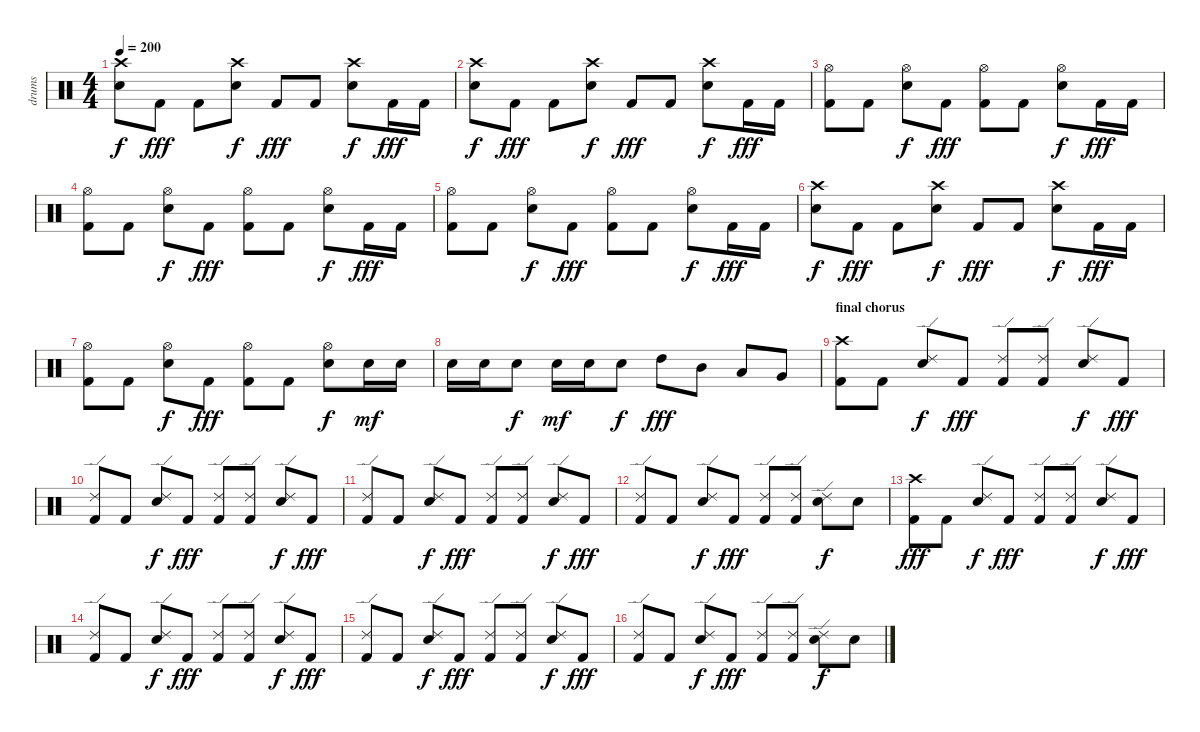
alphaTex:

\track ("drums" "drums") {instrument percussion}
\staff {score}
\articulation defaults
\ts (4 4)
\tempo 200
\clef neutral
\ks c
("Crash high (hit)" "Snare (hit) 2").8{dy f} "Kick (hit) 2".8{dy fff} "Kick (hit) 2".8 ("Crash high (hit)" "Snare (hit) 2").8{dy f} "Kick (hit) 2".8{dy fff} "Kick (hit) 2".8 ("Crash high (hit)" "Snare (hit) 2").8{dy f} "Kick (hit) 2".16{dy fff} "Kick (hit) 2".16 |
("Crash high (hit)" "Snare (hit) 2").8{dy f} "Kick (hit) 2".8{dy fff} "Kick (hit) 2".8 ("Crash high (hit)" "Snare (hit) 2").8{dy f} "Kick (hit) 2".8{dy fff} "Kick (hit) 2".8 ("Crash high (hit)" "Snare (hit) 2").8{dy f} "Kick (hit) 2".16{dy fff} "Kick (hit) 2".16 |
("Hi-Hat (open)" "Kick (hit) 2").8 "Kick (hit) 2".8 ("Hi-Hat (open)" "Snare (hit) 2").8{dy f} "Kick (hit) 2".8{dy fff} ("Hi-Hat (open)" "Kick (hit) 2").8 "Kick (hit) 2".8 ("Hi-Hat (open)" "Snare (hit) 2").8{dy f} "Kick (hit) 2".16{dy fff} "Kick (hit) 2".16 |
("Hi-Hat (open)" "Kick (hit) 2").8 "Kick (hit) 2".8 ("Hi-Hat (open)" "Snare (hit) 2").8{dy f} "Kick (hit) 2".8{dy fff} ("Hi-Hat (open)" "Kick (hit) 2").8 "Kick (hit) 2".8 ("Hi-Hat (open)" "Snare (hit) 2").8{dy f} "Kick (hit) 2".16{dy fff} "Kick (hit) 2".16 |
("Hi-Hat (open)" "Kick (hit) 2").8 "Kick (hit) 2".8 ("Hi-Hat (open)" "Snare (hit) 2").8{dy f} "Kick (hit) 2".8{dy fff} ("Hi-Hat (open)" "Kick (hit) 2").8 "Kick (hit) 2".8 ("Hi-Hat (open)" "Snare (hit) 2").8{dy f} "Kick (hit) 2".16{dy fff} "Kick (hit) 2".16 |
("Crash high (hit)" "Snare (hit) 2").8{dy f} "Kick (hit) 2".8{dy fff} "Kick (hit) 2".8 ("Crash high (hit)" "Snare (hit) 2").8{dy f} "Kick (hit) 2".8{dy fff} "Kick (hit) 2".8 ("Crash high (hit)" "Snare (hit) 2").8{dy f} "Kick (hit) 2".16{dy fff} "Kick (hit) 2".16 |
("Hi-Hat (open)" "Kick (hit) 2").8 "Kick (hit) 2".8 ("Hi-Hat (open)" "Snare (hit) 2").8{dy f} "Kick (hit) 2".8{dy fff} ("Hi-Hat (open)" "Kick (hit) 2").8 "Kick (hit) 2".8 ("Hi-Hat (open)" "Snare (hit) 2").8{dy f} "Snare (hit) 2".16{dy mf} "Snare (hit) 2".16 |
"Snare (hit) 2".16 "Snare (hit) 2".16 "Snare (hit) 2".8{dy f} "Snare (hit) 2".16{dy mf} "Snare (hit) 2".16 "Snare (hit) 2".8{dy f} "High Tom (hit)".8{dy fff} "Mid Tom (hit)".8 "Low Tom (hit)".8 "Very Low Tom (hit)".8 |
\section ("" "final chorus")
("Crash high (hit)" "Kick (hit) 2").8 "Kick (hit) 2".8 ("Ride (edge) 2" "Snare (hit) 2").8{dy f} "Kick (hit) 2".8{dy fff} ("Ride (edge) 2" "Kick (hit) 2").8 ("Ride (edge) 2" "Kick (hit) 2").8 ("Ride (edge) 2" "Snare (hit) 2").8{dy f} "Kick (hit) 2".8{dy fff} |
("Ride (edge) 2" "Kick (hit) 2").8 "Kick (hit) 2".8 ("Ride (edge) 2" "Snare (hit) 2").8{dy f} "Kick (hit) 2".8{dy fff} ("Ride (edge) 2" "Kick (hit) 2").8 ("Ride (edge) 2" "Kick (hit) 2").8 ("Ride (edge) 2" "Snare (hit) 2").8{dy f} "Kick (hit) 2".8{dy fff} |
("Ride (edge) 2" "Kick (hit) 2").8 "Kick (hit) 2".8 ("Ride (edge) 2" "Snare (hit) 2").8{dy f} "Kick (hit) 2".8{dy fff} ("Ride (edge) 2" "Kick (hit) 2").8 ("Ride (edge) 2" "Kick (hit) 2").8 ("Ride (edge) 2" "Snare (hit) 2").8{dy f} "Kick (hit) 2".8{dy fff} |
("Ride (edge) 2" "Kick (hit) 2").8 "Kick (hit) 2".8 ("Ride (edge) 2" "Snare (hit) 2").8{dy f} "Kick (hit) 2".8{dy fff} ("Ride (edge) 2" "Kick (hit) 2").8 ("Ride (edge) 2" "Kick (hit) 2").8 ("Ride (edge) 2" "Snare (hit) 2").8{dy f} "Snare (hit) 2".8 |
("Crash high (hit)" "Kick (hit) 2").8{dy fff} "Kick (hit) 2".8 ("Ride (edge) 2" "Snare (hit) 2").8{dy f} "Kick (hit) 2".8{dy fff} ("Ride (edge) 2" "Kick (hit) 2").8 ("Ride (edge) 2" "Kick (hit) 2").8 ("Ride (edge) 2" "Snare (hit) 2").8{dy f} "Kick (hit) 2".8{dy fff} |
("Ride (edge) 2" "Kick (hit) 2").8 "Kick (hit) 2".8 ("Ride (edge) 2" "Snare (hit) 2").8{dy f} "Kick (hit) 2".8{dy fff} ("Ride (edge) 2" "Kick (hit) 2").8 ("Ride (edge) 2" "Kick (hit) 2").8 ("Ride (edge) 2" "Snare (hit) 2").8{dy f} "Kick (hit) 2".8{dy fff} |
("Ride (edge) 2" "Kick (hit) 2").8 "Kick (hit) 2".8 ("Ride (edge) 2" "Snare (hit) 2").8{dy f} "Kick (hit) 2".8{dy fff} ("Ride (edge) 2" "Kick (hit) 2").8 ("Ride (edge) 2" "Kick (hit) 2").8 ("Ride (edge) 2" "Snare (hit) 2").8{dy f} "Kick (hit) 2".8{dy fff} |
("Ride (edge) 2" "Kick (hit) 2").8 "Kick (hit) 2".8 ("Ride (edge) 2" "Snare (hit) 2").8{dy f} "Kick (hit) 2".8{dy fff} ("Ride (edge) 2" "Kick (hit) 2").8 ("Ride (edge) 2" "Kick (hit) 2").8 ("Ride (edge) 2" "Snare (hit) 2").8{dy f} "Snare (hit) 2".8
